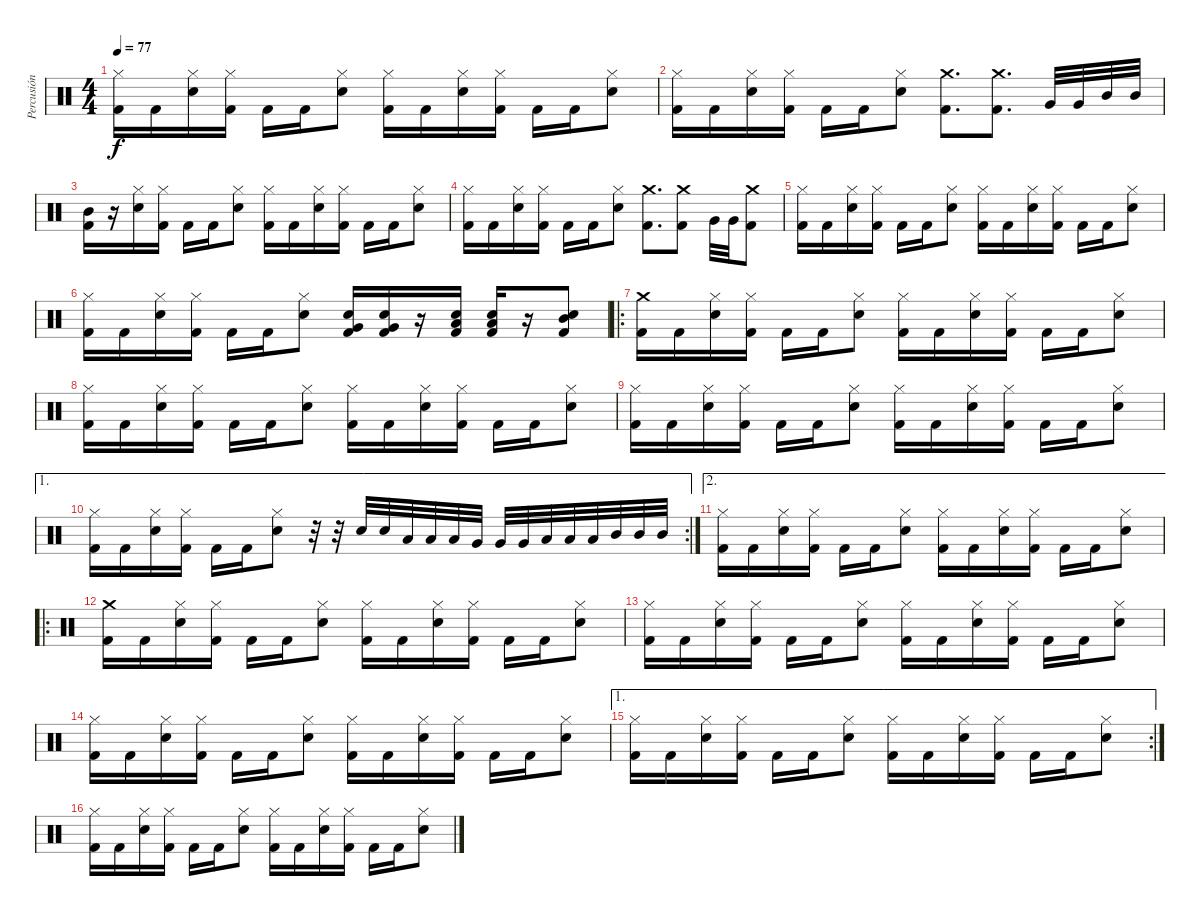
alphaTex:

\track ("Percusión" "Percusión") {instrument percussion}
\staff {score}
\articulation defaults
\ts (4 4)
\tempo 77
\clef neutral
\ks c
("Kick (hit) 2" "Hi-Hat (closed)").16{dy f} "Kick (hit) 2".16 ("Electric Snare (hit)" "Hi-Hat (closed)").16 ("Kick (hit) 2" "Hi-Hat (closed)").16 "Kick (hit) 2".16 "Kick (hit) 2".16 ("Electric Snare (hit)" "Hi-Hat (closed)").8 ("Kick (hit) 2" "Hi-Hat (closed)").16 "Kick (hit) 2".16 ("Electric Snare (hit)" "Hi-Hat (closed)").16 ("Kick (hit) 2" "Hi-Hat (closed)").16 "Kick (hit) 2".16 "Kick (hit) 2".16 ("Electric Snare (hit)" "Hi-Hat (closed)").8 |
("Kick (hit) 2" "Hi-Hat (closed)").16 "Kick (hit) 2".16 ("Electric Snare (hit)" "Hi-Hat (closed)").16 ("Kick (hit) 2" "Hi-Hat (closed)").16 "Kick (hit) 2".16 "Kick (hit) 2".16 ("Electric Snare (hit)" "Hi-Hat (closed)").8 ("Kick (hit) 2" "Crash medium (hit)").8{d} ("Kick (hit) 2" "Crash medium (hit)").8{d} "Very Low Tom (hit)".32 "Very Low Tom (hit)".32 "Mid Tom (hit)".32 "Mid Tom (hit)".32 |
("Kick (hit) 2" "Mid Tom (hit)").16 r.16 ("Electric Snare (hit)" "Hi-Hat (closed)").16 ("Kick (hit) 2" "Hi-Hat (closed)").16 "Kick (hit) 2".16 "Kick (hit) 2".16 ("Electric Snare (hit)" "Hi-Hat (closed)").8 ("Kick (hit) 2" "Hi-Hat (closed)").16 "Kick (hit) 2".16 ("Electric Snare (hit)" "Hi-Hat (closed)").16 ("Kick (hit) 2" "Hi-Hat (closed)").16 "Kick (hit) 2".16 "Kick (hit) 2".16 ("Electric Snare (hit)" "Hi-Hat (closed)").8 |
("Kick (hit) 2" "Hi-Hat (closed)").16 "Kick (hit) 2".16 ("Electric Snare (hit)" "Hi-Hat (closed)").16 ("Kick (hit) 2" "Hi-Hat (closed)").16 "Kick (hit) 2".16 "Kick (hit) 2".16 ("Electric Snare (hit)" "Hi-Hat (closed)").8 ("Kick (hit) 2" "Crash medium (hit)").8{d} ("Kick (hit) 2" "Crash medium (hit)").8 "Very Low Tom (hit)".32 "Very Low Tom (hit)".32 ("Kick (hit) 2" "Crash medium (hit)").8 |
("Kick (hit) 2" "Hi-Hat (closed)").16 "Kick (hit) 2".16 ("Electric Snare (hit)" "Hi-Hat (closed)").16 ("Kick (hit) 2" "Hi-Hat (closed)").16 "Kick (hit) 2".16 "Kick (hit) 2".16 ("Electric Snare (hit)" "Hi-Hat (closed)").8 ("Kick (hit) 2" "Hi-Hat (closed)").16 "Kick (hit) 2".16 ("Electric Snare (hit)" "Hi-Hat (closed)").16 ("Kick (hit) 2" "Hi-Hat (closed)").16 "Kick (hit) 2".16 "Kick (hit) 2".16 ("Electric Snare (hit)" "Hi-Hat (closed)").8 |
("Kick (hit) 2" "Hi-Hat (closed)").16 "Kick (hit) 2".16 ("Electric Snare (hit)" "Hi-Hat (closed)").16 ("Kick (hit) 2" "Hi-Hat (closed)").16 "Kick (hit) 2".16 "Kick (hit) 2".16 ("Electric Snare (hit)" "Hi-Hat (closed)").8 ("Kick (hit) 2" "Electric Snare (hit)" "Very Low Tom (hit)").16 ("Kick (hit) 2" "Electric Snare (hit)" "Very Low Tom (hit)").16 r.16 ("Kick (hit) 2" "Electric Snare (hit)" "Low Tom (hit)").16 ("Kick (hit) 2" "Electric Snare (hit)" "Low Tom (hit)").16 r.16 ("Electric Snare (hit)" "Kick (hit) 2" "Mid Tom (hit)").8 |
\ro
("Kick (hit) 2" "Crash medium (hit)").16 "Kick (hit) 2".16 ("Electric Snare (hit)" "Hi-Hat (closed)").16 ("Kick (hit) 2" "Hi-Hat (closed)").16 "Kick (hit) 2".16 "Kick (hit) 2".16 ("Electric Snare (hit)" "Hi-Hat (closed)").8 ("Kick (hit) 2" "Hi-Hat (closed)").16 "Kick (hit) 2".16 ("Electric Snare (hit)" "Hi-Hat (closed)").16 ("Kick (hit) 2" "Hi-Hat (closed)").16 "Kick (hit) 2".16 "Kick (hit) 2".16 ("Electric Snare (hit)" "Hi-Hat (closed)").8 |
("Kick (hit) 2" "Hi-Hat (closed)").16 "Kick (hit) 2".16 ("Electric Snare (hit)" "Hi-Hat (closed)").16 ("Kick (hit) 2" "Hi-Hat (closed)").16 "Kick (hit) 2".16 "Kick (hit) 2".16 ("Electric Snare (hit)" "Hi-Hat (closed)").8 ("Kick (hit) 2" "Hi-Hat (closed)").16 "Kick (hit) 2".16 ("Electric Snare (hit)" "Hi-Hat (closed)").16 ("Kick (hit) 2" "Hi-Hat (closed)").16 "Kick (hit) 2".16 "Kick (hit) 2".16 ("Electric Snare (hit)" "Hi-Hat (closed)").8 |
("Kick (hit) 2" "Hi-Hat (closed)").16 "Kick (hit) 2".16 ("Electric Snare (hit)" "Hi-Hat (closed)").16 ("Kick (hit) 2" "Hi-Hat (closed)").16 "Kick (hit) 2".16 "Kick (hit) 2".16 ("Electric Snare (hit)" "Hi-Hat (closed)").8 ("Kick (hit) 2" "Hi-Hat (closed)").16 "Kick (hit) 2".16 ("Electric Snare (hit)" "Hi-Hat (closed)").16 ("Kick (hit) 2" "Hi-Hat (closed)").16 "Kick (hit) 2".16 "Kick (hit) 2".16 ("Electric Snare (hit)" "Hi-Hat (closed)").8 |
\ae 1
\rc 2
("Kick (hit) 2" "Hi-Hat (closed)").16 "Kick (hit) 2".16 ("Electric Snare (hit)" "Hi-Hat (closed)").16 ("Kick (hit) 2" "Hi-Hat (closed)").16 "Kick (hit) 2".16 "Kick (hit) 2".16 ("Electric Snare (hit)" "Hi-Hat (closed)").8 r.32 r.32 "Electric Snare (hit)".32 "Electric Snare (hit)".32 "Low Floor Tom (hit)".32 "Low Floor Tom (hit)".32 "Low Floor Tom (hit)".32 "Very Low Tom (hit)".32 "Very Low Tom (hit)".32 "Very Low Tom (hit)".32 "Low Tom (hit)".32 "Low Tom (hit)".32 "Low Tom (hit)".32 "Mid Tom (hit)".32 "Mid Tom (hit)".32 "Mid Tom (hit)".32 |
\ae 2
("Kick (hit) 2" "Hi-Hat (closed)").16 "Kick (hit) 2".16 ("Electric Snare (hit)" "Hi-Hat (closed)").16 ("Kick (hit) 2" "Hi-Hat (closed)").16 "Kick (hit) 2".16 "Kick (hit) 2".16 ("Electric Snare (hit)" "Hi-Hat (closed)").8 ("Kick (hit) 2" "Hi-Hat (closed)").16 "Kick (hit) 2".16 ("Electric Snare (hit)" "Hi-Hat (closed)").16 ("Kick (hit) 2" "Hi-Hat (closed)").16 "Kick (hit) 2".16 "Kick (hit) 2".16 ("Electric Snare (hit)" "Hi-Hat (closed)").8 |
\ro
("Kick (hit) 2" "Crash medium (hit)").16 "Kick (hit) 2".16 ("Electric Snare (hit)" "Hi-Hat (closed)").16 ("Kick (hit) 2" "Hi-Hat (closed)").16 "Kick (hit) 2".16 "Kick (hit) 2".16 ("Electric Snare (hit)" "Hi-Hat (closed)").8 ("Kick (hit) 2" "Hi-Hat (closed)").16 "Kick (hit) 2".16 ("Electric Snare (hit)" "Hi-Hat (closed)").16 ("Kick (hit) 2" "Hi-Hat (closed)").16 "Kick (hit) 2".16 "Kick (hit) 2".16 ("Electric Snare (hit)" "Hi-Hat (closed)").8 |
("Kick (hit) 2" "Hi-Hat (closed)").16 "Kick (hit) 2".16 ("Electric Snare (hit)" "Hi-Hat (closed)").16 ("Kick (hit) 2" "Hi-Hat (closed)").16 "Kick (hit) 2".16 "Kick (hit) 2".16 ("Electric Snare (hit)" "Hi-Hat (closed)").8 ("Kick (hit) 2" "Hi-Hat (closed)").16 "Kick (hit) 2".16 ("Electric Snare (hit)" "Hi-Hat (closed)").16 ("Kick (hit) 2" "Hi-Hat (closed)").16 "Kick (hit) 2".16 "Kick (hit) 2".16 ("Electric Snare (hit)" "Hi-Hat (closed)").8 |
("Kick (hit) 2" "Hi-Hat (closed)").16 "Kick (hit) 2".16 ("Electric Snare (hit)" "Hi-Hat (closed)").16 ("Kick (hit) 2" "Hi-Hat (closed)").16 "Kick (hit) 2".16 "Kick (hit) 2".16 ("Electric Snare (hit)" "Hi-Hat (closed)").8 ("Kick (hit) 2" "Hi-Hat (closed)").16 "Kick (hit) 2".16 ("Electric Snare (hit)" "Hi-Hat (closed)").16 ("Kick (hit) 2" "Hi-Hat (closed)").16 "Kick (hit) 2".16 "Kick (hit) 2".16 ("Electric Snare (hit)" "Hi-Hat (closed)").8 |
\ae 1
\rc 2
("Kick (hit) 2" "Hi-Hat (closed)").16 "Kick (hit) 2".16 ("Electric Snare (hit)" "Hi-Hat (closed)").16 ("Kick (hit) 2" "Hi-Hat (closed)").16 "Kick (hit) 2".16 "Kick (hit) 2".16 ("Electric Snare (hit)" "Hi-Hat (closed)").8 ("Kick (hit) 2" "Hi-Hat (closed)").16 "Kick (hit) 2".16 ("Electric Snare (hit)" "Hi-Hat (closed)").16 ("Kick (hit) 2" "Hi-Hat (closed)").16 "Kick (hit) 2".16 "Kick (hit) 2".16 ("Electric Snare (hit)" "Hi-Hat (closed)").8 |
("Kick (hit) 2" "Hi-Hat (closed)").16 "Kick (hit) 2".16 ("Electric Snare (hit)" "Hi-Hat (closed)").16 ("Kick (hit) 2" "Hi-Hat (closed)").16 "Kick (hit) 2".16 "Kick (hit) 2".16 ("Electric Snare (hit)" "Hi-Hat (closed)").8 ("Kick (hit) 2" "Hi-Hat (closed)").16 "Kick (hit) 2".16 ("Electric Snare (hit)" "Hi-Hat (closed)").16 ("Kick (hit) 2" "Hi-Hat (closed)").16 "Kick (hit) 2".16 "Kick (hit) 2".16 ("Electric Snare (hit)" "Hi-Hat (closed)").8
